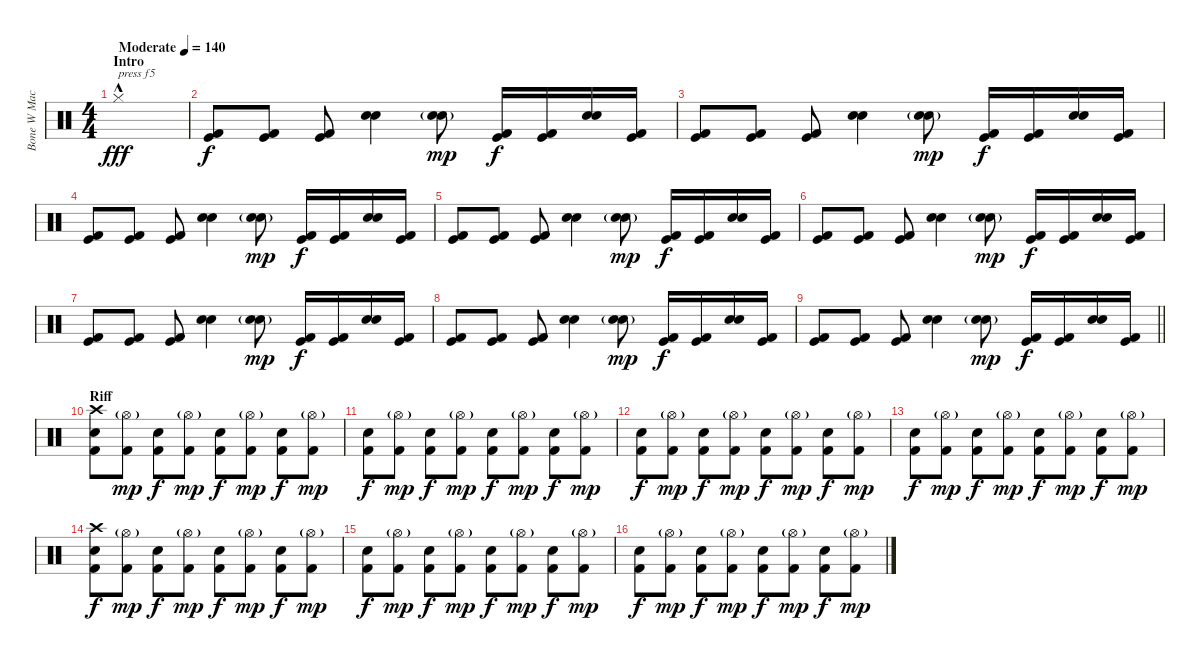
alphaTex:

\track ("Bone W Machine" "Bone W Mac") {instrument percussion}
\staff {score}
\articulation defaults
\ts (4 4)
\section ("" "Intro")
\tempo (140 "Moderate")
\clef neutral
\ks c "Hi-Hat (closed)"{hac}.1{txt "press f5" dy fff}
|
("Kick (hit)" "Kick (hit) 2").8{dy f} ("Kick (hit)" "Kick (hit) 2").8 ("Kick (hit)" "Kick (hit) 2").8 ("Snare (hit) 2" "Electric Snare (hit)").4 ("Snare (hit) 2"{g} "Electric Snare (hit)"{g}).8{dy mp} ("Kick (hit)" "Kick (hit) 2").16{dy f} ("Kick (hit)" "Kick (hit) 2").16 ("Snare (hit) 2" "Electric Snare (hit)").16 ("Kick (hit)" "Kick (hit) 2").16 |
("Kick (hit)" "Kick (hit) 2").8 ("Kick (hit)" "Kick (hit) 2").8 ("Kick (hit)" "Kick (hit) 2").8 ("Snare (hit) 2" "Electric Snare (hit)").4 ("Snare (hit) 2"{g} "Electric Snare (hit)"{g}).8{dy mp} ("Kick (hit)" "Kick (hit) 2").16{dy f} ("Kick (hit)" "Kick (hit) 2").16 ("Snare (hit) 2" "Electric Snare (hit)").16 ("Kick (hit)" "Kick (hit) 2").16 |
("Kick (hit)" "Kick (hit) 2").8 ("Kick (hit)" "Kick (hit) 2").8 ("Kick (hit)" "Kick (hit) 2").8 ("Snare (hit) 2" "Electric Snare (hit)").4 ("Snare (hit) 2"{g} "Electric Snare (hit)"{g}).8{dy mp} ("Kick (hit)" "Kick (hit) 2").16{dy f} ("Kick (hit)" "Kick (hit) 2").16 ("Snare (hit) 2" "Electric Snare (hit)").16 ("Kick (hit)" "Kick (hit) 2").16 |
("Kick (hit)" "Kick (hit) 2").8 ("Kick (hit)" "Kick (hit) 2").8 ("Kick (hit)" "Kick (hit) 2").8 ("Snare (hit) 2" "Electric Snare (hit)").4 ("Snare (hit) 2"{g} "Electric Snare (hit)"{g}).8{dy mp} ("Kick (hit)" "Kick (hit) 2").16{dy f} ("Kick (hit)" "Kick (hit) 2").16 ("Snare (hit) 2" "Electric Snare (hit)").16 ("Kick (hit)" "Kick (hit) 2").16 |
("Kick (hit)" "Kick (hit) 2").8 ("Kick (hit)" "Kick (hit) 2").8 ("Kick (hit)" "Kick (hit) 2").8 ("Snare (hit) 2" "Electric Snare (hit)").4 ("Snare (hit) 2"{g} "Electric Snare (hit)"{g}).8{dy mp} ("Kick (hit)" "Kick (hit) 2").16{dy f} ("Kick (hit)" "Kick (hit) 2").16 ("Snare (hit) 2" "Electric Snare (hit)").16 ("Kick (hit)" "Kick (hit) 2").16 |
("Kick (hit)" "Kick (hit) 2").8 ("Kick (hit)" "Kick (hit) 2").8 ("Kick (hit)" "Kick (hit) 2").8 ("Snare (hit) 2" "Electric Snare (hit)").4 ("Snare (hit) 2"{g} "Electric Snare (hit)"{g}).8{dy mp} ("Kick (hit)" "Kick (hit) 2").16{dy f} ("Kick (hit)" "Kick (hit) 2").16 ("Snare (hit) 2" "Electric Snare (hit)").16 ("Kick (hit)" "Kick (hit) 2").16 |
("Kick (hit)" "Kick (hit) 2").8 ("Kick (hit)" "Kick (hit) 2").8 ("Kick (hit)" "Kick (hit) 2").8 ("Snare (hit) 2" "Electric Snare (hit)").4 ("Snare (hit) 2"{g} "Electric Snare (hit)"{g}).8{dy mp} ("Kick (hit)" "Kick (hit) 2").16{dy f} ("Kick (hit)" "Kick (hit) 2").16 ("Snare (hit) 2" "Electric Snare (hit)").16 ("Kick (hit)" "Kick (hit) 2").16 |
\barLineRight lightlight
("Kick (hit)" "Kick (hit) 2").8 ("Kick (hit)" "Kick (hit) 2").8 ("Kick (hit)" "Kick (hit) 2").8 ("Snare (hit) 2" "Electric Snare (hit)").4 ("Snare (hit) 2"{g} "Electric Snare (hit)"{g}).8{dy mp} ("Kick (hit)" "Kick (hit) 2").16{dy f} ("Kick (hit)" "Kick (hit) 2").16 ("Snare (hit) 2" "Electric Snare (hit)").16 ("Kick (hit)" "Kick (hit) 2").16 |
\section ("" "Riff")
("Crash high (hit)" "Electric Snare (hit)" "Kick (hit) 2").8 ("Hi-Hat (open)"{g} "Kick (hit) 2").8{dy mp} ("Electric Snare (hit)" "Kick (hit) 2").8{dy f} ("Hi-Hat (open)"{g} "Kick (hit) 2").8{dy mp} ("Electric Snare (hit)" "Kick (hit) 2").8{dy f} ("Hi-Hat (open)"{g} "Kick (hit) 2").8{dy mp} ("Electric Snare (hit)" "Kick (hit) 2").8{dy f} ("Hi-Hat (open)"{g} "Kick (hit) 2").8{dy mp} |
("Electric Snare (hit)" "Kick (hit) 2").8{dy f} ("Hi-Hat (open)"{g} "Kick (hit) 2").8{dy mp} ("Electric Snare (hit)" "Kick (hit) 2").8{dy f} ("Hi-Hat (open)"{g} "Kick (hit) 2").8{dy mp} ("Electric Snare (hit)" "Kick (hit) 2").8{dy f} ("Hi-Hat (open)"{g} "Kick (hit) 2").8{dy mp} ("Electric Snare (hit)" "Kick (hit) 2").8{dy f} ("Hi-Hat (open)"{g} "Kick (hit) 2").8{dy mp} |
("Electric Snare (hit)" "Kick (hit) 2").8{dy f} ("Hi-Hat (open)"{g} "Kick (hit) 2").8{dy mp} ("Electric Snare (hit)" "Kick (hit) 2").8{dy f} ("Hi-Hat (open)"{g} "Kick (hit) 2").8{dy mp} ("Electric Snare (hit)" "Kick (hit) 2").8{dy f} ("Hi-Hat (open)"{g} "Kick (hit) 2").8{dy mp} ("Electric Snare (hit)" "Kick (hit) 2").8{dy f} ("Hi-Hat (open)"{g} "Kick (hit) 2").8{dy mp} |
("Electric Snare (hit)" "Kick (hit) 2").8{dy f} ("Hi-Hat (open)"{g} "Kick (hit) 2").8{dy mp} ("Electric Snare (hit)" "Kick (hit) 2").8{dy f} ("Hi-Hat (open)"{g} "Kick (hit) 2").8{dy mp} ("Electric Snare (hit)" "Kick (hit) 2").8{dy f} ("Hi-Hat (open)"{g} "Kick (hit) 2").8{dy mp} ("Electric Snare (hit)" "Kick (hit) 2").8{dy f} ("Hi-Hat (open)"{g} "Kick (hit) 2").8{dy mp} |
("Crash high (hit)" "Electric Snare (hit)" "Kick (hit) 2").8{dy f} ("Hi-Hat (open)"{g} "Kick (hit) 2").8{dy mp} ("Electric Snare (hit)" "Kick (hit) 2").8{dy f} ("Hi-Hat (open)"{g} "Kick (hit) 2").8{dy mp} ("Electric Snare (hit)" "Kick (hit) 2").8{dy f} ("Hi-Hat (open)"{g} "Kick (hit) 2").8{dy mp} ("Electric Snare (hit)" "Kick (hit) 2").8{dy f} ("Hi-Hat (open)"{g} "Kick (hit) 2").8{dy mp} |
("Electric Snare (hit)" "Kick (hit) 2").8{dy f} ("Hi-Hat (open)"{g} "Kick (hit) 2").8{dy mp} ("Electric Snare (hit)" "Kick (hit) 2").8{dy f} ("Hi-Hat (open)"{g} "Kick (hit) 2").8{dy mp} ("Electric Snare (hit)" "Kick (hit) 2").8{dy f} ("Hi-Hat (open)"{g} "Kick (hit) 2").8{dy mp} ("Electric Snare (hit)" "Kick (hit) 2").8{dy f} ("Hi-Hat (open)"{g} "Kick (hit) 2").8{dy mp} |
("Electric Snare (hit)" "Kick (hit) 2").8{dy f} ("Hi-Hat (open)"{g} "Kick (hit) 2").8{dy mp} ("Electric Snare (hit)" "Kick (hit) 2").8{dy f} ("Hi-Hat (open)"{g} "Kick (hit) 2").8{dy mp} ("Electric Snare (hit)" "Kick (hit) 2").8{dy f} ("Hi-Hat (open)"{g} "Kick (hit) 2").8{dy mp} ("Electric Snare (hit)" "Kick (hit) 2").8{dy f} ("Hi-Hat (open)"{g} "Kick (hit) 2").8{dy mp}
